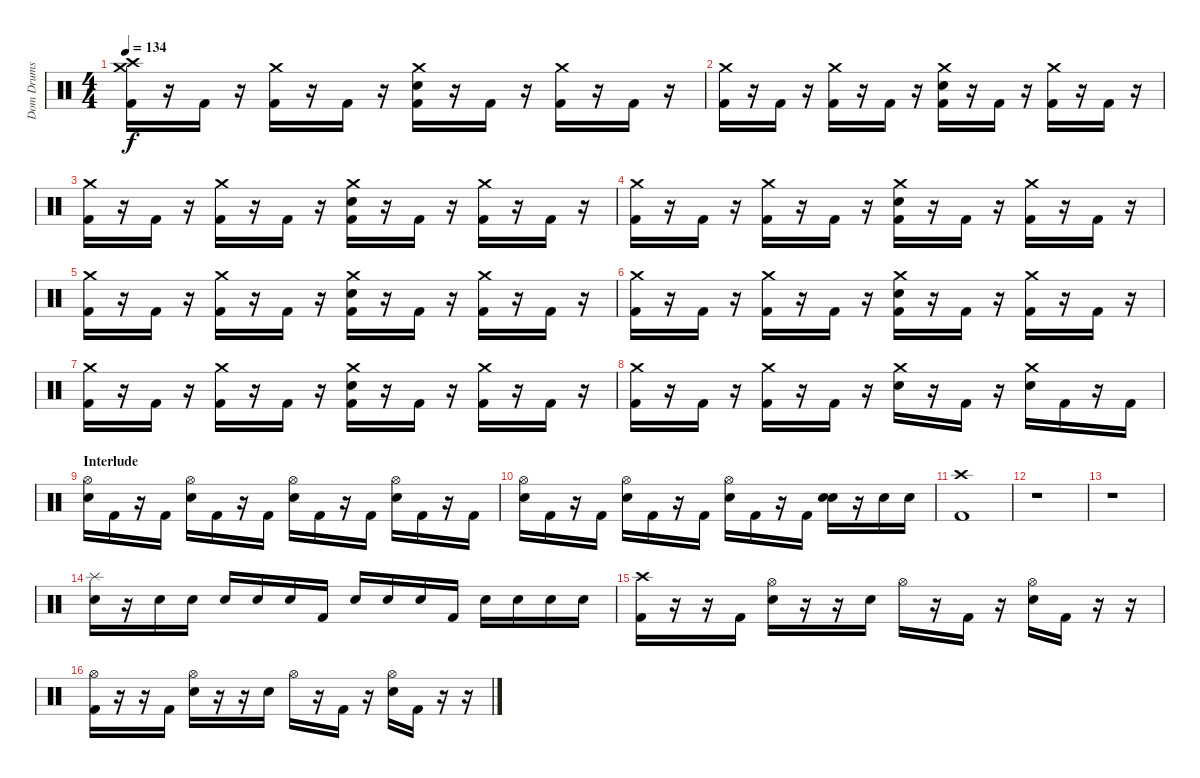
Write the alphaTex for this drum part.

\track ("Dom Drums" "Dom Drums") {instrument percussion}
\staff {score}
\articulation defaults
\ts (4 4)
\tempo 134
\clef neutral
\ks c
("Crash high (hit)" "Crash medium (hit)" "Kick (hit) 2").16{dy f} r.16 "Kick (hit) 2".16 r.16 ("Crash medium (hit)" "Kick (hit) 2").16 r.16 "Kick (hit) 2".16 r.16 ("Crash medium (hit)" "Electric Snare (hit)" "Kick (hit) 2").16 r.16 "Kick (hit) 2".16 r.16 ("Crash medium (hit)" "Kick (hit) 2").16 r.16 "Kick (hit) 2".16 r.16 |
("Crash medium (hit)" "Kick (hit) 2").16 r.16 "Kick (hit) 2".16 r.16 ("Crash medium (hit)" "Kick (hit) 2").16 r.16 "Kick (hit) 2".16 r.16 ("Crash medium (hit)" "Electric Snare (hit)" "Kick (hit) 2").16 r.16 "Kick (hit) 2".16 r.16 ("Crash medium (hit)" "Kick (hit) 2").16 r.16 "Kick (hit) 2".16 r.16 |
("Crash medium (hit)" "Kick (hit) 2").16 r.16 "Kick (hit) 2".16 r.16 ("Crash medium (hit)" "Kick (hit) 2").16 r.16 "Kick (hit) 2".16 r.16 ("Crash medium (hit)" "Electric Snare (hit)" "Kick (hit) 2").16 r.16 "Kick (hit) 2".16 r.16 ("Crash medium (hit)" "Kick (hit) 2").16 r.16 "Kick (hit) 2".16 r.16 |
("Crash medium (hit)" "Kick (hit) 2").16 r.16 "Kick (hit) 2".16 r.16 ("Crash medium (hit)" "Kick (hit) 2").16 r.16 "Kick (hit) 2".16 r.16 ("Crash medium (hit)" "Electric Snare (hit)" "Kick (hit) 2").16 r.16 "Kick (hit) 2".16 r.16 ("Crash medium (hit)" "Kick (hit) 2").16 r.16 "Kick (hit) 2".16 r.16 |
("Crash medium (hit)" "Kick (hit) 2").16 r.16 "Kick (hit) 2".16 r.16 ("Crash medium (hit)" "Kick (hit) 2").16 r.16 "Kick (hit) 2".16 r.16 ("Crash medium (hit)" "Electric Snare (hit)" "Kick (hit) 2").16 r.16 "Kick (hit) 2".16 r.16 ("Crash medium (hit)" "Kick (hit) 2").16 r.16 "Kick (hit) 2".16 r.16 |
("Crash medium (hit)" "Kick (hit) 2").16 r.16 "Kick (hit) 2".16 r.16 ("Crash medium (hit)" "Kick (hit) 2").16 r.16 "Kick (hit) 2".16 r.16 ("Crash medium (hit)" "Electric Snare (hit)" "Kick (hit) 2").16 r.16 "Kick (hit) 2".16 r.16 ("Crash medium (hit)" "Kick (hit) 2").16 r.16 "Kick (hit) 2".16 r.16 |
("Crash medium (hit)" "Kick (hit) 2").16 r.16 "Kick (hit) 2".16 r.16 ("Crash medium (hit)" "Kick (hit) 2").16 r.16 "Kick (hit) 2".16 r.16 ("Crash medium (hit)" "Electric Snare (hit)" "Kick (hit) 2").16 r.16 "Kick (hit) 2".16 r.16 ("Crash medium (hit)" "Kick (hit) 2").16 r.16 "Kick (hit) 2".16 r.16 |
("Crash medium (hit)" "Kick (hit) 2").16 r.16 "Kick (hit) 2".16 r.16 ("Crash medium (hit)" "Kick (hit) 2").16 r.16 "Kick (hit) 2".16 r.16 ("Crash medium (hit)" "Electric Snare (hit)").16 r.16 "Kick (hit) 2".16 r.16 ("Crash medium (hit)" "Electric Snare (hit)").16 "Kick (hit) 2".16 r.16 "Kick (hit) 2".16 |
\section ("" "Interlude")
("Hi-Hat (open)" "Electric Snare (hit)").16 "Kick (hit) 2".16 r.16 "Kick (hit) 2".16 ("Hi-Hat (open)" "Electric Snare (hit)").16 "Kick (hit) 2".16 r.16 "Kick (hit) 2".16 ("Hi-Hat (open)" "Electric Snare (hit)").16 "Kick (hit) 2".16 r.16 "Kick (hit) 2".16 ("Hi-Hat (open)" "Electric Snare (hit)").16 "Kick (hit) 2".16 r.16 "Kick (hit) 2".16 |
("Hi-Hat (open)" "Electric Snare (hit)").16 "Kick (hit) 2".16 r.16 "Kick (hit) 2".16 ("Hi-Hat (open)" "Electric Snare (hit)").16 "Kick (hit) 2".16 r.16 "Kick (hit) 2".16 ("Hi-Hat (open)" "Electric Snare (hit)").16 "Kick (hit) 2".16 r.16 "Kick (hit) 2".16 ("Electric Snare (hit)" "Electric Snare (hit)").16 r.16 "Electric Snare (hit)".16 "Electric Snare (hit)".16 |
("Crash high (hit)" "Kick (hit) 2").1 |
r.1 |
r.1 |
("Splash (hit)" "Electric Snare (hit)").16 r.16 "Electric Snare (hit)".16 "Electric Snare (hit)".16 "Electric Snare (hit)".16 "Electric Snare (hit)".16 "Electric Snare (hit)".16 "Kick (hit) 2".16 "Electric Snare (hit)".16 "Electric Snare (hit)".16 "Electric Snare (hit)".16 "Kick (hit) 2".16 "Electric Snare (hit)".16 "Electric Snare (hit)".16 "Electric Snare (hit)".16 "Electric Snare (hit)".16 |
("Crash high (hit)" "Kick (hit) 2").16 r.16 r.16 "Kick (hit) 2".16 ("Hi-Hat (open)" "Electric Snare (hit)").16 r.16 r.16 "Electric Snare (hit)".16 "Hi-Hat (open)".16 r.16 "Kick (hit) 2".16 r.16 ("Hi-Hat (open)" "Electric Snare (hit)").16 "Kick (hit) 2".16 r.16 r.16 |
("Hi-Hat (open)" "Kick (hit) 2").16 r.16 r.16 "Kick (hit) 2".16 ("Hi-Hat (open)" "Electric Snare (hit)").16 r.16 r.16 "Electric Snare (hit)".16 "Hi-Hat (open)".16 r.16 "Kick (hit) 2".16 r.16 ("Hi-Hat (open)" "Electric Snare (hit)").16 "Kick (hit) 2".16 r.16 r.16
